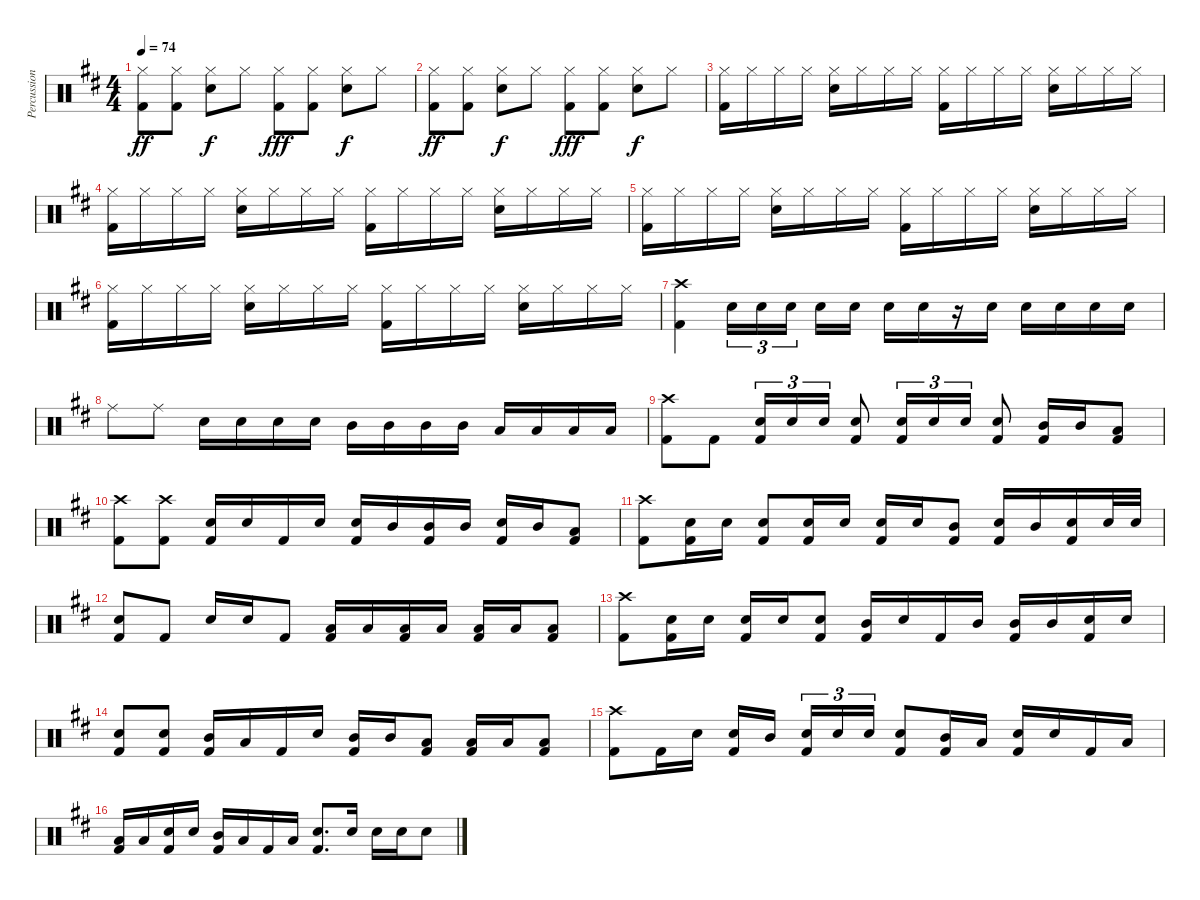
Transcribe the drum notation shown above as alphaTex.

\track ("Percussion" "Percussion") {instrument percussion}
\staff {score}
\articulation defaults
\ts (4 4)
\tempo 74
\clef neutral
\ks d
("Hi-Hat (closed)" "Kick (hit) 2").8{dy ff} ("Hi-Hat (closed)" "Kick (hit) 2").8 ("Hi-Hat (closed)" "Snare (hit) 2").8{dy f} "Hi-Hat (closed)".8 ("Hi-Hat (closed)" "Kick (hit) 2").8{dy fff} ("Hi-Hat (closed)" "Kick (hit) 2").8 ("Hi-Hat (closed)" "Snare (hit) 2").8{dy f} "Hi-Hat (closed)".8 |
("Hi-Hat (closed)" "Kick (hit) 2").8{dy ff} ("Hi-Hat (closed)" "Kick (hit) 2").8 ("Hi-Hat (closed)" "Snare (hit) 2").8{dy f} "Hi-Hat (closed)".8 ("Hi-Hat (closed)" "Kick (hit) 2").8{dy fff} ("Hi-Hat (closed)" "Kick (hit) 2").8 ("Hi-Hat (closed)" "Snare (hit) 2").8{dy f} "Hi-Hat (closed)".8 |
("Hi-Hat (closed)" "Kick (hit) 2").16 "Hi-Hat (closed)".16 "Hi-Hat (closed)".16 "Hi-Hat (closed)".16 ("Hi-Hat (closed)" "Snare (hit) 2").16 "Hi-Hat (closed)".16 "Hi-Hat (closed)".16 "Hi-Hat (closed)".16 ("Hi-Hat (closed)" "Kick (hit) 2").16 "Hi-Hat (closed)".16 "Hi-Hat (closed)".16 "Hi-Hat (closed)".16 ("Hi-Hat (closed)" "Snare (hit) 2").16 "Hi-Hat (closed)".16 "Hi-Hat (closed)".16 "Hi-Hat (closed)".16 |
("Hi-Hat (closed)" "Kick (hit) 2").16 "Hi-Hat (closed)".16 "Hi-Hat (closed)".16 "Hi-Hat (closed)".16 ("Hi-Hat (closed)" "Snare (hit) 2").16 "Hi-Hat (closed)".16 "Hi-Hat (closed)".16 "Hi-Hat (closed)".16 ("Hi-Hat (closed)" "Kick (hit) 2").16 "Hi-Hat (closed)".16 "Hi-Hat (closed)".16 "Hi-Hat (closed)".16 ("Hi-Hat (closed)" "Snare (hit) 2").16 "Hi-Hat (closed)".16 "Hi-Hat (closed)".16 "Hi-Hat (closed)".16 |
("Hi-Hat (closed)" "Kick (hit) 2").16 "Hi-Hat (closed)".16 "Hi-Hat (closed)".16 "Hi-Hat (closed)".16 ("Hi-Hat (closed)" "Snare (hit) 2").16 "Hi-Hat (closed)".16 "Hi-Hat (closed)".16 "Hi-Hat (closed)".16 ("Hi-Hat (closed)" "Kick (hit) 2").16 "Hi-Hat (closed)".16 "Hi-Hat (closed)".16 "Hi-Hat (closed)".16 ("Hi-Hat (closed)" "Snare (hit) 2").16 "Hi-Hat (closed)".16 "Hi-Hat (closed)".16 "Hi-Hat (closed)".16 |
("Hi-Hat (closed)" "Kick (hit) 2").16 "Hi-Hat (closed)".16 "Hi-Hat (closed)".16 "Hi-Hat (closed)".16 ("Hi-Hat (closed)" "Snare (hit) 2").16 "Hi-Hat (closed)".16 "Hi-Hat (closed)".16 "Hi-Hat (closed)".16 ("Hi-Hat (closed)" "Kick (hit) 2").16 "Hi-Hat (closed)".16 "Hi-Hat (closed)".16 "Hi-Hat (closed)".16 ("Hi-Hat (closed)" "Snare (hit) 2").16 "Hi-Hat (closed)".16 "Hi-Hat (closed)".16 "Hi-Hat (closed)".16 |
("Crash high (hit)" "Kick (hit) 2").4 "Snare (hit) 2".16{tu (3 2)} "Snare (hit) 2".16{tu (3 2)} "Snare (hit) 2".16{tu (3 2) beam splitsecondary} "Snare (hit) 2".16 "Snare (hit) 2".16 "Snare (hit) 2".16 "Snare (hit) 2".16 r.16 "Snare (hit) 2".16 "Snare (hit) 2".16 "Snare (hit) 2".16 "Snare (hit) 2".16 "Snare (hit) 2".16 |
"Ride (middle)".8 "Ride (middle)".8 "Snare (hit) 2".16 "Snare (hit) 2".16 "Snare (hit) 2".16 "Snare (hit) 2".16 "Mid Tom (hit)".16 "Mid Tom (hit)".16 "Mid Tom (hit)".16 "Mid Tom (hit)".16 "Low Tom (hit)".16 "Low Tom (hit)".16 "Low Tom (hit)".16 "Low Tom (hit)".16 |
("Crash high (hit)" "Kick (hit) 2").8 "Kick (hit) 2".8 ("Snare (hit) 2" "Kick (hit) 2").16{tu (3 2)} "Snare (hit) 2".16{tu (3 2)} "Snare (hit) 2".16{tu (3 2)} ("Snare (hit) 2" "Kick (hit) 2").8 ("Snare (hit) 2" "Kick (hit) 2").16{tu (3 2)} "Snare (hit) 2".16{tu (3 2)} "Snare (hit) 2".16{tu (3 2)} ("Snare (hit) 2" "Kick (hit) 2").8 ("Mid Tom (hit)" "Kick (hit) 2").16 "Mid Tom (hit)".16 ("Low Tom (hit)" "Kick (hit) 2").8 |
("Crash high (hit)" "Kick (hit) 2").8 ("Crash high (hit)" "Kick (hit) 2").8 ("Snare (hit) 2" "Kick (hit) 2").16 "Snare (hit) 2".16 "Kick (hit) 2".16 "Snare (hit) 2".16 ("Snare (hit) 2" "Kick (hit) 2").16 "Mid Tom (hit)".16 ("Mid Tom (hit)" "Kick (hit) 2").16 "Mid Tom (hit)".16 ("Snare (hit) 2" "Kick (hit) 2").16 "Mid Tom (hit)".16 ("Low Tom (hit)" "Kick (hit) 2").8 |
("Crash high (hit)" "Kick (hit) 2").8 ("Snare (hit) 2" "Kick (hit) 2").16 "Snare (hit) 2".16 ("Snare (hit) 2" "Kick (hit) 2").8 ("Snare (hit) 2" "Kick (hit) 2").16 "Snare (hit) 2".16 ("Snare (hit) 2" "Kick (hit) 2").16 "Snare (hit) 2".16 ("Mid Tom (hit)" "Kick (hit) 2").8 ("Snare (hit) 2" "Kick (hit) 2").16 "Mid Tom (hit)".16 ("Snare (hit) 2" "Kick (hit) 2").16 "Snare (hit) 2".32 "Snare (hit) 2".32 |
("Snare (hit) 2" "Kick (hit) 2").8 "Kick (hit) 2".8 "Snare (hit) 2".16 "Snare (hit) 2".16 "Kick (hit) 2".8 ("Low Tom (hit)" "Kick (hit) 2").16 "Low Tom (hit)".16 ("Low Tom (hit)" "Kick (hit) 2").16 "Low Tom (hit)".16 ("Low Floor Tom (hit)" "Kick (hit) 2").16 "Low Floor Tom (hit)".16 ("Low Floor Tom (hit)" "Kick (hit) 2").8 |
("Crash high (hit)" "Kick (hit) 2").8 ("Snare (hit) 2" "Kick (hit) 2").16 "Snare (hit) 2".16 ("Snare (hit) 2" "Kick (hit) 2").16 "Snare (hit) 2".16 ("Snare (hit) 2" "Kick (hit) 2").8 ("Mid Tom (hit)" "Kick (hit) 2").16 "Snare (hit) 2".16 "Kick (hit) 2".16 "Mid Tom (hit)".16 ("Mid Tom (hit)" "Kick (hit) 2").16 "Mid Tom (hit)".16 ("Snare (hit) 2" "Kick (hit) 2").16 "Snare (hit) 2".16 |
("Snare (hit) 2" "Kick (hit) 2").8 ("Snare (hit) 2" "Kick (hit) 2").8 ("Mid Tom (hit)" "Kick (hit) 2").16 "Low Tom (hit)".16 "Kick (hit) 2".16 "Snare (hit) 2".16 ("Mid Tom (hit)" "Kick (hit) 2").16 "Mid Tom (hit)".16 ("Low Tom (hit)" "Kick (hit) 2").8 ("Low Floor Tom (hit)" "Kick (hit) 2").16 "Low Floor Tom (hit)".16 ("Low Floor Tom (hit)" "Kick (hit) 2").8 |
("Crash high (hit)" "Kick (hit) 2").8 "Kick (hit) 2".16 "Snare (hit) 2".16 ("Snare (hit) 2" "Kick (hit) 2").16 "Mid Tom (hit)".16{beam splitsecondary} ("Snare (hit) 2" "Kick (hit) 2").16{tu (3 2)} "Snare (hit) 2".16{tu (3 2)} "Snare (hit) 2".16{tu (3 2)} ("Snare (hit) 2" "Kick (hit) 2").8 ("Mid Tom (hit)" "Kick (hit) 2").16 "Low Tom (hit)".16 ("Snare (hit) 2" "Kick (hit) 2").16 "Snare (hit) 2".16 "Kick (hit) 2".16 "Low Floor Tom (hit)".16 |
("Low Floor Tom (hit)" "Kick (hit) 2").16 "Low Floor Tom (hit)".16 ("Snare (hit) 2" "Kick (hit) 2").16 "Snare (hit) 2".16 ("Mid Tom (hit)" "Kick (hit) 2").16 "Low Tom (hit)".16 "Kick (hit) 2".16 "Low Floor Tom (hit)".16 ("Snare (hit) 2" "Kick (hit) 2").8{d} "Snare (hit) 2".16 "Snare (hit) 2".16 "Snare (hit) 2".16 "Snare (hit) 2".8
